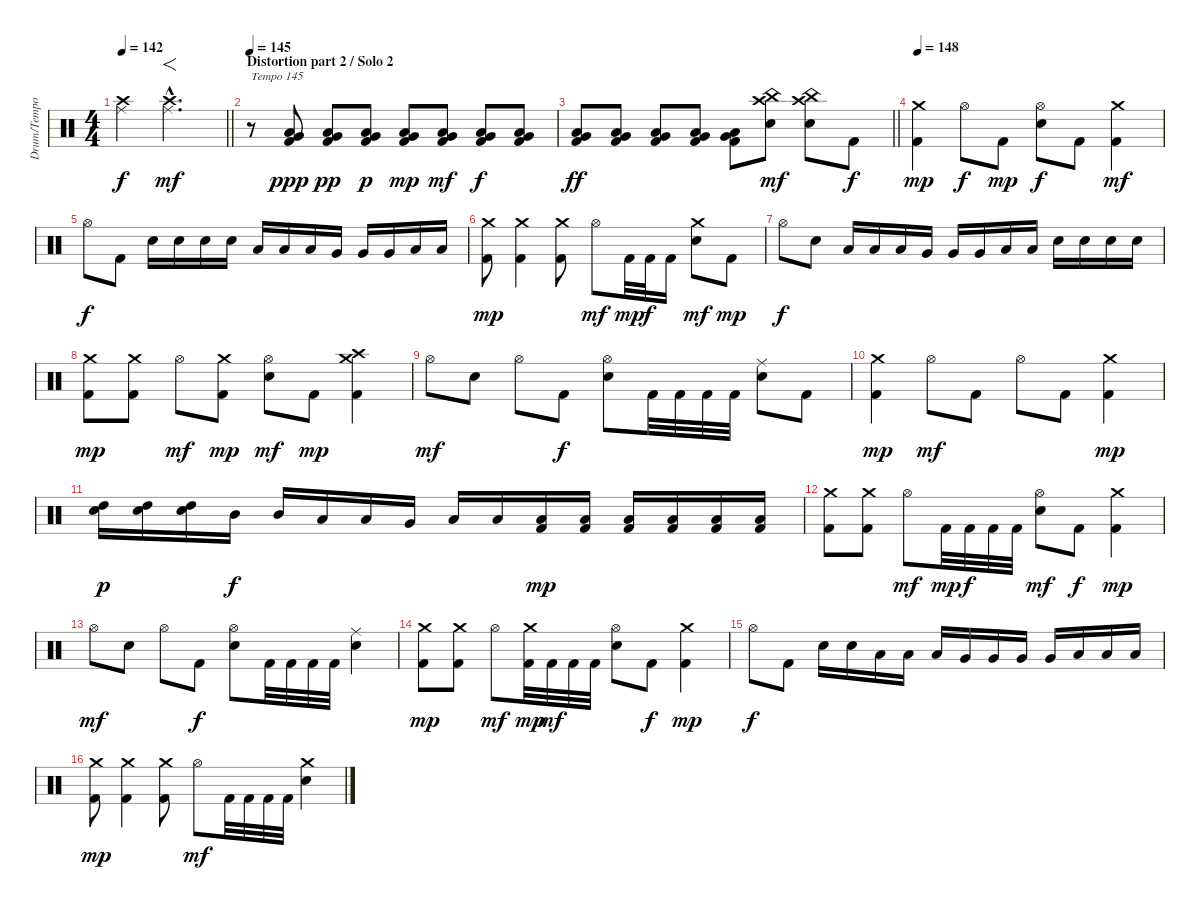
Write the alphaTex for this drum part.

\track ("Drum/Tempo" "Drum/Tempo") {instrument percussion}
\staff {score}
\articulation defaults
\ts (4 4)
\tempo 142
\clef neutral
\barLineRight lightlight
\ks c
("Crash high (hit)"{t} "Ride (middle)"{t}).4{dy f} ("Crash high (hit)"{hac} "Ride (middle)"{hac}).2{f d dy mf} |
\section ("" "Distortion part 2 / Solo 2")
\tempo 145
r.8{txt "Tempo 145"} ("Kick (hit) 2" "Low Tom (hit)" "Very Low Tom (hit)").8{dy ppp} ("Kick (hit) 2" "Low Tom (hit)" "Very Low Tom (hit)").8{dy pp} ("Kick (hit) 2" "Low Tom (hit)" "Very Low Tom (hit)").8{dy p} ("Kick (hit) 2" "Low Tom (hit)" "Very Low Tom (hit)").8{dy mp} ("Kick (hit) 2" "Low Tom (hit)" "Very Low Tom (hit)").8{dy mf} ("Kick (hit) 2" "Low Tom (hit)" "Very Low Tom (hit)").8{dy f} ("Kick (hit) 2" "Low Tom (hit)" "Very Low Tom (hit)").8 |
\barLineRight lightlight
("Kick (hit) 2" "Low Tom (hit)" "Very Low Tom (hit)").8{dy ff} ("Kick (hit) 2" "Low Tom (hit)" "Very Low Tom (hit)").8 ("Kick (hit) 2" "Low Tom (hit)" "Very Low Tom (hit)").8 ("Kick (hit) 2" "Low Tom (hit)" "Very Low Tom (hit)").8 ("Kick (hit) 2" "Low Tom (hit)" "Very Low Tom (hit)").8 ("Electric Snare (hit)" "China (hit)" "Crash high (hit)").8{dy mf} ("Electric Snare (hit)" "China (hit)" "Crash high (hit)").8 "Kick (hit) 2".8{dy f} |
\tempo 148
("Kick (hit) 2" "Crash medium (hit)").4{dy mp} "Hi-Hat (open)".8{dy f} "Kick (hit) 2".8{dy mp} ("Electric Snare (hit)" "Hi-Hat (open)").8{dy f} "Kick (hit) 2".8 ("Kick (hit) 2" "Crash medium (hit)").4{dy mf} |
"Hi-Hat (open)".8{dy f} "Kick (hit) 2".8 "Electric Snare (hit)".16 "Electric Snare (hit)".16 "Electric Snare (hit)".16 "Electric Snare (hit)".16 "Low Tom (hit)".16 "Low Tom (hit)".16 "Low Tom (hit)".16 "Very Low Tom (hit)".16 "Very Low Tom (hit)".16 "Very Low Tom (hit)".16 "Low Floor Tom (hit)".16 "Low Floor Tom (hit)".16 |
("Kick (hit) 2" "Crash medium (hit)").8{dy mp} ("Kick (hit) 2" "Crash medium (hit)").4 ("Kick (hit) 2" "Crash medium (hit)").8 "Hi-Hat (open)".8{dy mf} "Kick (hit) 2".32{dy mp} "Kick (hit) 2".32{dy f} "Kick (hit) 2".16 ("Electric Snare (hit)" "Crash medium (hit)").8{dy mf} "Kick (hit) 2".8{dy mp} |
"Hi-Hat (open)".8{dy f} "Electric Snare (hit)".8 "Low Tom (hit)".16{balance 15} "Low Tom (hit)".16 "Low Tom (hit)".16 "Very Low Tom (hit)".16 "Very Low Tom (hit)".16{balance 13} "Very Low Tom (hit)".16 "Low Floor Tom (hit)".16 "Low Floor Tom (hit)".16 "Electric Snare (hit)".16{balance 8} "Electric Snare (hit)".16 "Electric Snare (hit)".16 "Electric Snare (hit)".16 |
("Kick (hit) 2" "Crash medium (hit)").8{dy mp} ("Kick (hit) 2" "Crash medium (hit)").8 "Hi-Hat (open)".8{dy mf} ("Kick (hit) 2" "Crash medium (hit)").8{dy mp} ("Electric Snare (hit)" "Hi-Hat (open)").8{dy mf} "Kick (hit) 2".8{dy mp} ("Kick (hit) 2" "Crash medium (hit)" "Crash high (hit)").4 |
"Hi-Hat (open)".8{dy mf} "Electric Snare (hit)".8 "Hi-Hat (open)".8 "Kick (hit) 2".8{dy f} ("Electric Snare (hit)" "Hi-Hat (open)").8 "Kick (hit) 2".32 "Kick (hit) 2".32 "Kick (hit) 2".32 "Kick (hit) 2".32 ("Electric Snare (hit)" "Ride (middle)").8 "Kick (hit) 2".8 |
("Kick (hit) 2" "Crash medium (hit)").4{dy mp} "Hi-Hat (open)".8{dy mf} "Kick (hit) 2".8 "Hi-Hat (open)".8 "Kick (hit) 2".8 ("Kick (hit) 2" "Crash medium (hit)").4{dy mp} |
("Electric Snare (hit)" "High Tom (hit)").16{dy p} ("Electric Snare (hit)" "High Tom (hit)").16 ("Electric Snare (hit)" "High Tom (hit)").16 "Mid Tom (hit)".16{dy f} "Mid Tom (hit)".16 "Low Tom (hit)".16 "Low Tom (hit)".16 "Very Low Tom (hit)".16 "Low Tom (hit)".16 "Low Floor Tom (hit)".16 ("Kick (hit) 2" "Low Floor Tom (hit)").16{dy mp} ("Kick (hit) 2" "Low Floor Tom (hit)").16 ("Kick (hit) 2" "Low Floor Tom (hit)").16 ("Kick (hit) 2" "Low Floor Tom (hit)").16 ("Kick (hit) 2" "Low Floor Tom (hit)").16 ("Kick (hit) 2" "Low Floor Tom (hit)").16 |
("Kick (hit) 2" "Crash medium (hit)").8 ("Kick (hit) 2" "Crash medium (hit)").8 "Hi-Hat (open)".8{dy mf} "Kick (hit) 2".32{dy mp} "Kick (hit) 2".32{dy f} "Kick (hit) 2".32 "Kick (hit) 2".32 ("Electric Snare (hit)" "Hi-Hat (open)").8{dy mf} "Kick (hit) 2".8{dy f} ("Kick (hit) 2" "Crash medium (hit)").4{dy mp} |
"Hi-Hat (open)".8{dy mf} "Electric Snare (hit)".8 "Hi-Hat (open)".8 "Kick (hit) 2".8{dy f} ("Electric Snare (hit)" "Hi-Hat (open)").8 "Kick (hit) 2".32 "Kick (hit) 2".32 "Kick (hit) 2".32 "Kick (hit) 2".32 ("Electric Snare (hit)" "Ride (middle)").4 |
("Kick (hit) 2" "Crash medium (hit)").8{dy mp} ("Kick (hit) 2" "Crash medium (hit)").8 "Hi-Hat (open)".8{dy mf} ("Kick (hit) 2" "Crash medium (hit)").32{dy mp} "Kick (hit) 2".32{dy mf} "Kick (hit) 2".32 "Kick (hit) 2".32 ("Electric Snare (hit)" "Hi-Hat (open)").8 "Kick (hit) 2".8{dy f} ("Kick (hit) 2" "Crash medium (hit)").4{dy mp} |
"Hi-Hat (open)".8{dy f} "Kick (hit) 2".8 "Electric Snare (hit)".16 "Electric Snare (hit)".16 "Low Tom (hit)".16 "Low Tom (hit)".16 "Low Tom (hit)".16 "Very Low Tom (hit)".16 "Very Low Tom (hit)".16 "Very Low Tom (hit)".16 "Very Low Tom (hit)".16 "Low Floor Tom (hit)".16 "Low Floor Tom (hit)".16 "Low Floor Tom (hit)".16 |
("Kick (hit) 2" "Crash medium (hit)").8{dy mp} ("Kick (hit) 2" "Crash medium (hit)").4 ("Kick (hit) 2" "Crash medium (hit)").8 "Hi-Hat (open)".8{dy mf} "Kick (hit) 2".32 "Kick (hit) 2".32 "Kick (hit) 2".32 "Kick (hit) 2".32 ("Electric Snare (hit)" "Crash medium (hit)").4
